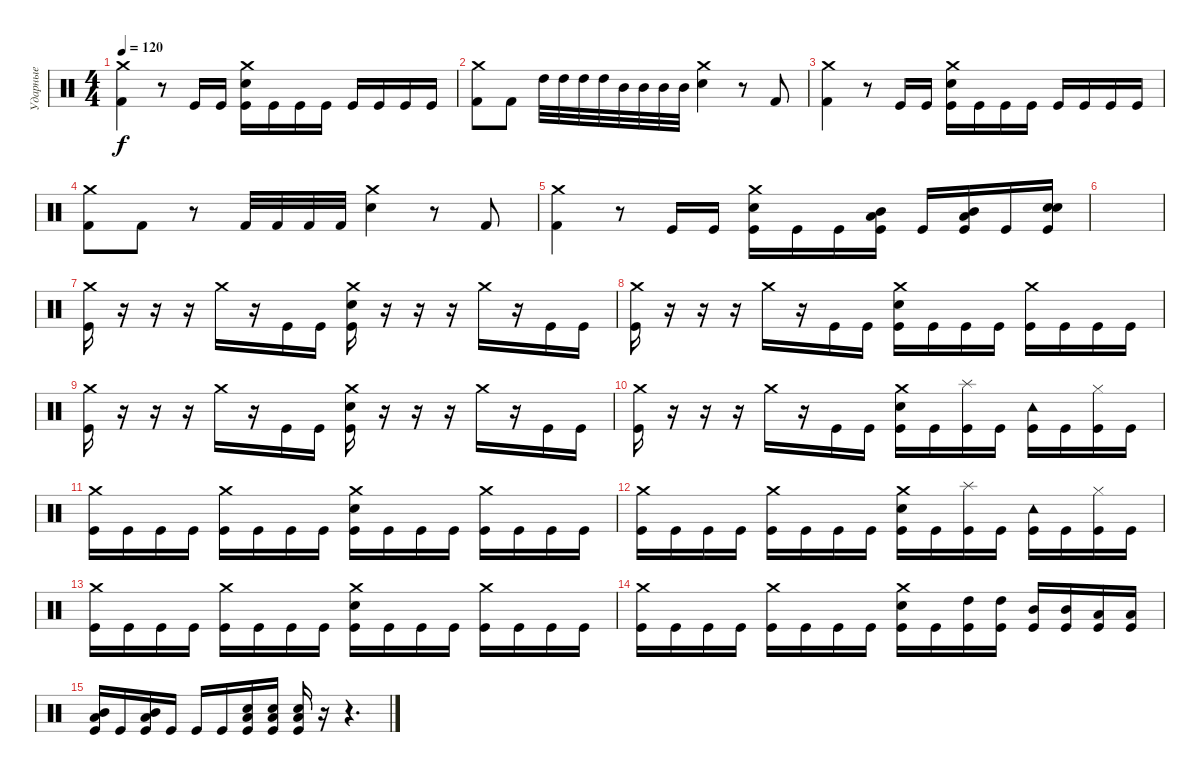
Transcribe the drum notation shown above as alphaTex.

\track ("Ударные" "Ударные") {instrument percussion}
\staff {score}
\articulation defaults
\ts (4 4)
\tempo 120
\clef neutral
\ks c
("Crash medium (hit)" "Kick (hit) 2").4{dy f} r.8 "Kick (hit)".16 "Kick (hit)".16 ("Crash medium (hit)" "Snare (hit) 2" "Kick (hit)").16 "Kick (hit)".16 "Kick (hit)".16 "Kick (hit)".16 "Kick (hit)".16 "Kick (hit)".16 "Kick (hit)".16 "Kick (hit)".16 |
("Crash medium (hit)" "Kick (hit) 2").8 "Kick (hit) 2".8 "High Tom (hit)".32 "High Tom (hit)".32 "High Tom (hit)".32 "High Tom (hit)".32 "Mid Tom (hit)".32 "Mid Tom (hit)".32 "Mid Tom (hit)".32 "Mid Tom (hit)".32 ("Crash medium (hit)" "Snare (hit) 2").4 r.8 "Kick (hit) 2".8 |
("Crash medium (hit)" "Kick (hit) 2").4 r.8 "Kick (hit)".16 "Kick (hit)".16 ("Crash medium (hit)" "Snare (hit) 2" "Kick (hit)").16 "Kick (hit)".16 "Kick (hit)".16 "Kick (hit)".16 "Kick (hit)".16 "Kick (hit)".16 "Kick (hit)".16 "Kick (hit)".16 |
("Crash medium (hit)" "Kick (hit) 2").8 "Kick (hit) 2".8 r.8 "Kick (hit) 2".32 "Kick (hit) 2".32 "Kick (hit) 2".32 "Kick (hit) 2".32 ("Crash medium (hit)" "Snare (hit) 2").4 r.8 "Kick (hit) 2".8 |
("Crash medium (hit)" "Kick (hit) 2").4 r.8 "Kick (hit)".16 "Kick (hit)".16 ("Crash medium (hit)" "Snare (hit) 2" "Kick (hit)").16 "Kick (hit)".16 "Kick (hit)".16 ("Low Tom (hit)" "Mid Tom (hit)" "Kick (hit)").16 "Kick (hit)".16 ("Low Tom (hit)" "Mid Tom (hit)" "Kick (hit)").16 "Kick (hit)".16 ("Snare (hit) 2" "Snare (hit) 2" "Kick (hit)").16 |
|
("Crash medium (hit)" "Kick (hit)").16 r.16 r.16 r.16 "Crash medium (hit)".16 r.16 "Kick (hit)".16 "Kick (hit)".16 ("Crash medium (hit)" "Snare (hit) 2" "Kick (hit)").16 r.16 r.16 r.16 "Crash medium (hit)".16 r.16 "Kick (hit)".16 "Kick (hit)".16 |
("Crash medium (hit)" "Kick (hit)").16 r.16 r.16 r.16 "Crash medium (hit)".16 r.16 "Kick (hit)".16 "Kick (hit)".16 ("Crash medium (hit)" "Snare (hit) 2" "Kick (hit)").16 "Kick (hit)".16 "Kick (hit)".16 "Kick (hit)".16 ("Crash medium (hit)" "Kick (hit)").16 "Kick (hit)".16 "Kick (hit)".16 "Kick (hit)".16 |
("Crash medium (hit)" "Kick (hit)").16 r.16 r.16 r.16 "Crash medium (hit)".16 r.16 "Kick (hit)".16 "Kick (hit)".16 ("Crash medium (hit)" "Snare (hit) 2" "Kick (hit)").16 r.16 r.16 r.16 "Crash medium (hit)".16 r.16 "Kick (hit)".16 "Kick (hit)".16 |
("Crash medium (hit)" "Kick (hit)").16 r.16 r.16 r.16 "Crash medium (hit)".16 r.16 "Kick (hit)".16 "Kick (hit)".16 ("Crash medium (hit)" "Snare (hit) 2" "Kick (hit)").16 "Kick (hit)".16 ("Splash (hit)" "Kick (hit)").16 "Kick (hit)".16 ("Tambourine (hit)" "Kick (hit)").16 "Kick (hit)".16 ("Hi-Hat (closed)" "Kick (hit)").16 "Kick (hit)".16 |
("Crash medium (hit)" "Kick (hit)").16 "Kick (hit)".16 "Kick (hit)".16 "Kick (hit)".16 ("Crash medium (hit)" "Kick (hit)").16 "Kick (hit)".16 "Kick (hit)".16 "Kick (hit)".16 ("Crash medium (hit)" "Snare (hit) 2" "Kick (hit)").16 "Kick (hit)".16 "Kick (hit)".16 "Kick (hit)".16 ("Crash medium (hit)" "Kick (hit)").16 "Kick (hit)".16 "Kick (hit)".16 "Kick (hit)".16 |
("Crash medium (hit)" "Kick (hit)").16 "Kick (hit)".16 "Kick (hit)".16 "Kick (hit)".16 ("Crash medium (hit)" "Kick (hit)").16 "Kick (hit)".16 "Kick (hit)".16 "Kick (hit)".16 ("Crash medium (hit)" "Snare (hit) 2" "Kick (hit)").16 "Kick (hit)".16 ("Splash (hit)" "Kick (hit)").16 "Kick (hit)".16 ("Tambourine (hit)" "Kick (hit)").16 "Kick (hit)".16 ("Hi-Hat (closed)" "Kick (hit)").16 "Kick (hit)".16 |
("Crash medium (hit)" "Kick (hit)").16 "Kick (hit)".16 "Kick (hit)".16 "Kick (hit)".16 ("Crash medium (hit)" "Kick (hit)").16 "Kick (hit)".16 "Kick (hit)".16 "Kick (hit)".16 ("Crash medium (hit)" "Snare (hit) 2" "Kick (hit)").16 "Kick (hit)".16 "Kick (hit)".16 "Kick (hit)".16 ("Crash medium (hit)" "Kick (hit)").16 "Kick (hit)".16 "Kick (hit)".16 "Kick (hit)".16 |
("Crash medium (hit)" "Kick (hit)").16 "Kick (hit)".16 "Kick (hit)".16 "Kick (hit)".16 ("Crash medium (hit)" "Kick (hit)").16 "Kick (hit)".16 "Kick (hit)".16 "Kick (hit)".16 ("Crash medium (hit)" "Snare (hit) 2" "Kick (hit)").16 "Kick (hit)".16 ("High Tom (hit)" "Kick (hit)").16 ("High Tom (hit)" "Kick (hit)").16 ("Mid Tom (hit)" "Kick (hit)").16 ("Mid Tom (hit)" "Kick (hit)").16 ("Low Tom (hit)" "Kick (hit)").16 ("Low Tom (hit)" "Kick (hit)").16 |
("Low Tom (hit)" "Mid Tom (hit)" "Kick (hit)").16 "Kick (hit)".16 ("Low Tom (hit)" "Mid Tom (hit)" "Kick (hit)").16 "Kick (hit)".16 "Kick (hit)".16 "Kick (hit)".16 ("Low Tom (hit)" "Snare (hit) 2" "Kick (hit)").16 ("Low Tom (hit)" "Snare (hit) 2" "Kick (hit)").16 ("Low Tom (hit)" "Snare (hit) 2" "Kick (hit)").16 r.16 r.4{d}
